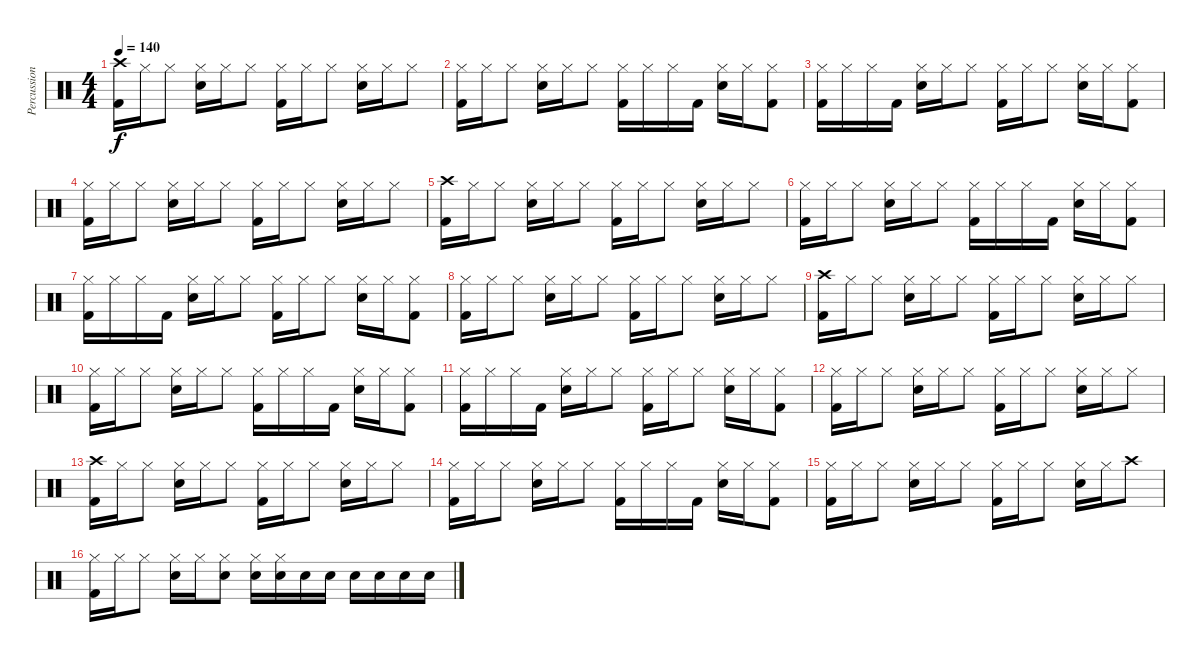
\track ("Percussion" "Percussion") {instrument percussion}
\staff {score}
\articulation defaults
\ts (4 4)
\tempo 140
\clef neutral
\ks c
("Crash high (hit)" "Kick (hit) 2").16{dy f} "Hi-Hat (closed)".16 "Hi-Hat (closed)".8 ("Hi-Hat (closed)" "Electric Snare (hit)").16 "Hi-Hat (closed)".16 "Hi-Hat (closed)".8 ("Hi-Hat (closed)" "Kick (hit) 2").16 "Hi-Hat (closed)".16 "Hi-Hat (closed)".8 ("Hi-Hat (closed)" "Electric Snare (hit)").16 "Hi-Hat (closed)".16 "Hi-Hat (closed)".8 |
("Hi-Hat (closed)" "Kick (hit) 2").16 "Hi-Hat (closed)".16 "Hi-Hat (closed)".8 ("Hi-Hat (closed)" "Electric Snare (hit)").16 "Hi-Hat (closed)".16 "Hi-Hat (closed)".8 ("Hi-Hat (closed)" "Kick (hit) 2").16 "Hi-Hat (closed)".16 "Hi-Hat (closed)".16 "Kick (hit) 2".16 ("Hi-Hat (closed)" "Electric Snare (hit)").16 "Hi-Hat (closed)".16 ("Hi-Hat (closed)" "Kick (hit) 2").8 |
("Hi-Hat (closed)" "Kick (hit) 2").16 "Hi-Hat (closed)".16 "Hi-Hat (closed)".16 "Kick (hit) 2".16 ("Hi-Hat (closed)" "Electric Snare (hit)").16 "Hi-Hat (closed)".16 "Hi-Hat (closed)".8 ("Hi-Hat (closed)" "Kick (hit) 2").16 "Hi-Hat (closed)".16 "Hi-Hat (closed)".8 ("Hi-Hat (closed)" "Electric Snare (hit)").16 "Hi-Hat (closed)".16 ("Hi-Hat (closed)" "Kick (hit) 2").8 |
("Hi-Hat (closed)" "Kick (hit) 2").16 "Hi-Hat (closed)".16 "Hi-Hat (closed)".8 ("Hi-Hat (closed)" "Electric Snare (hit)").16 "Hi-Hat (closed)".16 "Hi-Hat (closed)".8 ("Hi-Hat (closed)" "Kick (hit) 2").16 "Hi-Hat (closed)".16 "Hi-Hat (closed)".8 ("Hi-Hat (closed)" "Electric Snare (hit)").16 "Hi-Hat (closed)".16 "Hi-Hat (closed)".8 |
("Crash high (hit)" "Kick (hit) 2").16 "Hi-Hat (closed)".16 "Hi-Hat (closed)".8 ("Hi-Hat (closed)" "Electric Snare (hit)").16 "Hi-Hat (closed)".16 "Hi-Hat (closed)".8 ("Hi-Hat (closed)" "Kick (hit) 2").16 "Hi-Hat (closed)".16 "Hi-Hat (closed)".8 ("Hi-Hat (closed)" "Electric Snare (hit)").16 "Hi-Hat (closed)".16 "Hi-Hat (closed)".8 |
("Hi-Hat (closed)" "Kick (hit) 2").16 "Hi-Hat (closed)".16 "Hi-Hat (closed)".8 ("Hi-Hat (closed)" "Electric Snare (hit)").16 "Hi-Hat (closed)".16 "Hi-Hat (closed)".8 ("Hi-Hat (closed)" "Kick (hit) 2").16 "Hi-Hat (closed)".16 "Hi-Hat (closed)".16 "Kick (hit) 2".16 ("Hi-Hat (closed)" "Electric Snare (hit)").16 "Hi-Hat (closed)".16 ("Hi-Hat (closed)" "Kick (hit) 2").8 |
("Hi-Hat (closed)" "Kick (hit) 2").16 "Hi-Hat (closed)".16 "Hi-Hat (closed)".16 "Kick (hit) 2".16 ("Hi-Hat (closed)" "Electric Snare (hit)").16 "Hi-Hat (closed)".16 "Hi-Hat (closed)".8 ("Hi-Hat (closed)" "Kick (hit) 2").16 "Hi-Hat (closed)".16 "Hi-Hat (closed)".8 ("Hi-Hat (closed)" "Electric Snare (hit)").16 "Hi-Hat (closed)".16 ("Hi-Hat (closed)" "Kick (hit) 2").8 |
("Hi-Hat (closed)" "Kick (hit) 2").16 "Hi-Hat (closed)".16 "Hi-Hat (closed)".8 ("Hi-Hat (closed)" "Electric Snare (hit)").16 "Hi-Hat (closed)".16 "Hi-Hat (closed)".8 ("Hi-Hat (closed)" "Kick (hit) 2").16 "Hi-Hat (closed)".16 "Hi-Hat (closed)".8 ("Hi-Hat (closed)" "Electric Snare (hit)").16 "Hi-Hat (closed)".16 "Hi-Hat (closed)".8 |
("Crash high (hit)" "Kick (hit) 2").16 "Hi-Hat (closed)".16 "Hi-Hat (closed)".8 ("Hi-Hat (closed)" "Electric Snare (hit)").16 "Hi-Hat (closed)".16 "Hi-Hat (closed)".8 ("Hi-Hat (closed)" "Kick (hit) 2").16 "Hi-Hat (closed)".16 "Hi-Hat (closed)".8 ("Hi-Hat (closed)" "Electric Snare (hit)").16 "Hi-Hat (closed)".16 "Hi-Hat (closed)".8 |
("Hi-Hat (closed)" "Kick (hit) 2").16 "Hi-Hat (closed)".16 "Hi-Hat (closed)".8 ("Hi-Hat (closed)" "Electric Snare (hit)").16 "Hi-Hat (closed)".16 "Hi-Hat (closed)".8 ("Hi-Hat (closed)" "Kick (hit) 2").16 "Hi-Hat (closed)".16 "Hi-Hat (closed)".16 "Kick (hit) 2".16 ("Hi-Hat (closed)" "Electric Snare (hit)").16 "Hi-Hat (closed)".16 ("Hi-Hat (closed)" "Kick (hit) 2").8 |
("Hi-Hat (closed)" "Kick (hit) 2").16 "Hi-Hat (closed)".16 "Hi-Hat (closed)".16 "Kick (hit) 2".16 ("Hi-Hat (closed)" "Electric Snare (hit)").16 "Hi-Hat (closed)".16 "Hi-Hat (closed)".8 ("Hi-Hat (closed)" "Kick (hit) 2").16 "Hi-Hat (closed)".16 "Hi-Hat (closed)".8 ("Hi-Hat (closed)" "Electric Snare (hit)").16 "Hi-Hat (closed)".16 ("Hi-Hat (closed)" "Kick (hit) 2").8 |
("Hi-Hat (closed)" "Kick (hit) 2").16 "Hi-Hat (closed)".16 "Hi-Hat (closed)".8 ("Hi-Hat (closed)" "Electric Snare (hit)").16 "Hi-Hat (closed)".16 "Hi-Hat (closed)".8 ("Hi-Hat (closed)" "Kick (hit) 2").16 "Hi-Hat (closed)".16 "Hi-Hat (closed)".8 ("Hi-Hat (closed)" "Electric Snare (hit)").16 "Hi-Hat (closed)".16 "Hi-Hat (closed)".8 |
("Crash high (hit)" "Kick (hit) 2").16 "Hi-Hat (closed)".16 "Hi-Hat (closed)".8 ("Hi-Hat (closed)" "Electric Snare (hit)").16 "Hi-Hat (closed)".16 "Hi-Hat (closed)".8 ("Hi-Hat (closed)" "Kick (hit) 2").16 "Hi-Hat (closed)".16 "Hi-Hat (closed)".8 ("Hi-Hat (closed)" "Electric Snare (hit)").16 "Hi-Hat (closed)".16 "Hi-Hat (closed)".8 |
("Hi-Hat (closed)" "Kick (hit) 2").16 "Hi-Hat (closed)".16 "Hi-Hat (closed)".8 ("Hi-Hat (closed)" "Electric Snare (hit)").16 "Hi-Hat (closed)".16 "Hi-Hat (closed)".8 ("Hi-Hat (closed)" "Kick (hit) 2").16 "Hi-Hat (closed)".16 "Hi-Hat (closed)".16 "Kick (hit) 2".16 ("Hi-Hat (closed)" "Electric Snare (hit)").16 "Hi-Hat (closed)".16 ("Hi-Hat (closed)" "Kick (hit) 2").8 |
("Hi-Hat (closed)" "Kick (hit) 2").16 "Hi-Hat (closed)".16 "Hi-Hat (closed)".8 ("Hi-Hat (closed)" "Electric Snare (hit)").16 "Hi-Hat (closed)".16 "Hi-Hat (closed)".8 ("Hi-Hat (closed)" "Kick (hit) 2").16 "Hi-Hat (closed)".16 "Hi-Hat (closed)".8 ("Hi-Hat (closed)" "Electric Snare (hit)").16 "Hi-Hat (closed)".16 "Crash high (hit)".8 |
("Hi-Hat (closed)" "Kick (hit) 2").16 "Hi-Hat (closed)".16 "Hi-Hat (closed)".8 ("Hi-Hat (closed)" "Electric Snare (hit)").16 "Hi-Hat (closed)".16 ("Hi-Hat (closed)" "Electric Snare (hit)").8 ("Hi-Hat (closed)" "Electric Snare (hit)").16 ("Hi-Hat (closed)" "Electric Snare (hit)").16 "Electric Snare (hit)".16 "Electric Snare (hit)".16 "Electric Snare (hit)".16 "Electric Snare (hit)".16 "Electric Snare (hit)".16 "Electric Snare (hit)".16
